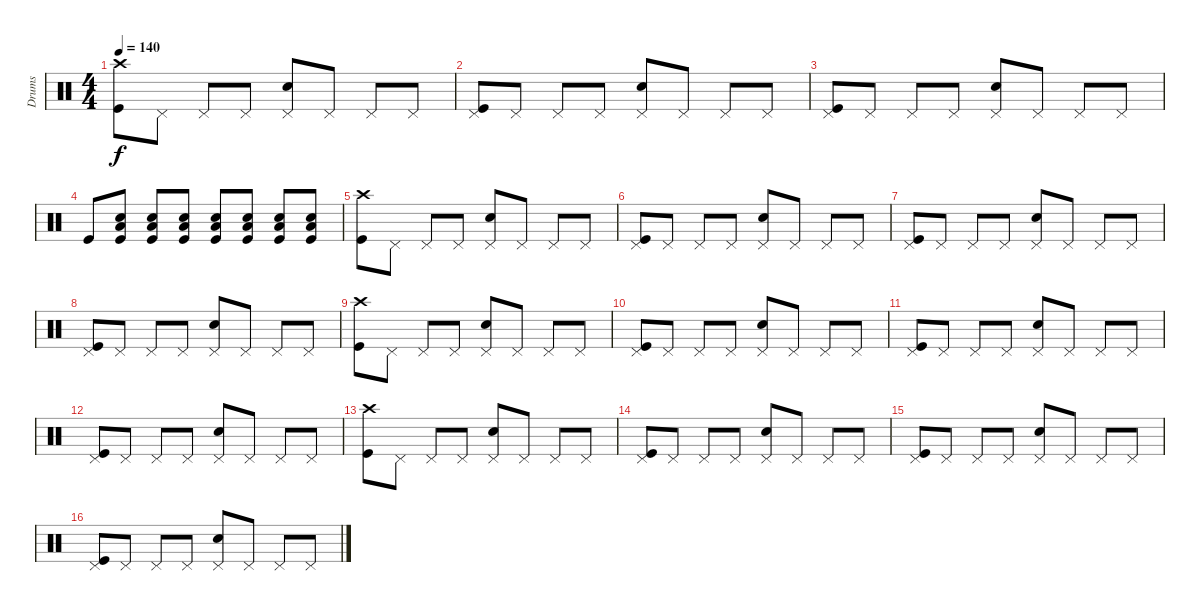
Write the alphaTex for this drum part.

\track ("Drums" "Drums") {instrument percussion}
\staff {score}
\articulation defaults
\ts (4 4)
\tempo 140
\clef neutral
\ks c
("Crash high (hit)" "Kick (hit)").8{dy f} "Pedal Hi-Hat (hit)".8 "Pedal Hi-Hat (hit)".8 "Pedal Hi-Hat (hit)".8 ("Pedal Hi-Hat (hit)" "Snare (hit) 2").8 "Pedal Hi-Hat (hit)".8 "Pedal Hi-Hat (hit)".8 "Pedal Hi-Hat (hit)".8 |
("Pedal Hi-Hat (hit)" "Kick (hit)").8 "Pedal Hi-Hat (hit)".8 "Pedal Hi-Hat (hit)".8 "Pedal Hi-Hat (hit)".8 ("Pedal Hi-Hat (hit)" "Snare (hit) 2").8 "Pedal Hi-Hat (hit)".8 "Pedal Hi-Hat (hit)".8 "Pedal Hi-Hat (hit)".8 |
("Pedal Hi-Hat (hit)" "Kick (hit)").8 "Pedal Hi-Hat (hit)".8 "Pedal Hi-Hat (hit)".8 "Pedal Hi-Hat (hit)".8 ("Pedal Hi-Hat (hit)" "Snare (hit) 2").8 "Pedal Hi-Hat (hit)".8 "Pedal Hi-Hat (hit)".8 "Pedal Hi-Hat (hit)".8 |
"Kick (hit)".8 ("Snare (hit) 2" "Low Tom (hit)" "Kick (hit)").8 ("Snare (hit) 2" "Low Tom (hit)" "Kick (hit)").8 ("Snare (hit) 2" "Low Tom (hit)" "Kick (hit)").8 ("Snare (hit) 2" "Low Tom (hit)" "Kick (hit)").8 ("Snare (hit) 2" "Low Tom (hit)" "Kick (hit)").8 ("Snare (hit) 2" "Low Tom (hit)" "Kick (hit)").8 ("Snare (hit) 2" "Low Tom (hit)" "Kick (hit)").8 |
("Crash high (hit)" "Kick (hit)").8 "Pedal Hi-Hat (hit)".8 "Pedal Hi-Hat (hit)".8 "Pedal Hi-Hat (hit)".8 ("Pedal Hi-Hat (hit)" "Snare (hit) 2").8 "Pedal Hi-Hat (hit)".8 "Pedal Hi-Hat (hit)".8 "Pedal Hi-Hat (hit)".8 |
("Pedal Hi-Hat (hit)" "Kick (hit)").8 "Pedal Hi-Hat (hit)".8 "Pedal Hi-Hat (hit)".8 "Pedal Hi-Hat (hit)".8 ("Pedal Hi-Hat (hit)" "Snare (hit) 2").8 "Pedal Hi-Hat (hit)".8 "Pedal Hi-Hat (hit)".8 "Pedal Hi-Hat (hit)".8 |
("Pedal Hi-Hat (hit)" "Kick (hit)").8 "Pedal Hi-Hat (hit)".8 "Pedal Hi-Hat (hit)".8 "Pedal Hi-Hat (hit)".8 ("Pedal Hi-Hat (hit)" "Snare (hit) 2").8 "Pedal Hi-Hat (hit)".8 "Pedal Hi-Hat (hit)".8 "Pedal Hi-Hat (hit)".8 |
("Pedal Hi-Hat (hit)" "Kick (hit)").8 "Pedal Hi-Hat (hit)".8 "Pedal Hi-Hat (hit)".8 "Pedal Hi-Hat (hit)".8 ("Pedal Hi-Hat (hit)" "Snare (hit) 2").8 "Pedal Hi-Hat (hit)".8 "Pedal Hi-Hat (hit)".8 "Pedal Hi-Hat (hit)".8 |
("Crash high (hit)" "Kick (hit)").8 "Pedal Hi-Hat (hit)".8 "Pedal Hi-Hat (hit)".8 "Pedal Hi-Hat (hit)".8 ("Pedal Hi-Hat (hit)" "Snare (hit) 2").8 "Pedal Hi-Hat (hit)".8 "Pedal Hi-Hat (hit)".8 "Pedal Hi-Hat (hit)".8 |
("Pedal Hi-Hat (hit)" "Kick (hit)").8 "Pedal Hi-Hat (hit)".8 "Pedal Hi-Hat (hit)".8 "Pedal Hi-Hat (hit)".8 ("Pedal Hi-Hat (hit)" "Snare (hit) 2").8 "Pedal Hi-Hat (hit)".8 "Pedal Hi-Hat (hit)".8 "Pedal Hi-Hat (hit)".8 |
("Pedal Hi-Hat (hit)" "Kick (hit)").8 "Pedal Hi-Hat (hit)".8 "Pedal Hi-Hat (hit)".8 "Pedal Hi-Hat (hit)".8 ("Pedal Hi-Hat (hit)" "Snare (hit) 2").8 "Pedal Hi-Hat (hit)".8 "Pedal Hi-Hat (hit)".8 "Pedal Hi-Hat (hit)".8 |
("Pedal Hi-Hat (hit)" "Kick (hit)").8 "Pedal Hi-Hat (hit)".8 "Pedal Hi-Hat (hit)".8 "Pedal Hi-Hat (hit)".8 ("Pedal Hi-Hat (hit)" "Snare (hit) 2").8 "Pedal Hi-Hat (hit)".8 "Pedal Hi-Hat (hit)".8 "Pedal Hi-Hat (hit)".8 |
("Crash high (hit)" "Kick (hit)").8 "Pedal Hi-Hat (hit)".8 "Pedal Hi-Hat (hit)".8 "Pedal Hi-Hat (hit)".8 ("Pedal Hi-Hat (hit)" "Snare (hit) 2").8 "Pedal Hi-Hat (hit)".8 "Pedal Hi-Hat (hit)".8 "Pedal Hi-Hat (hit)".8 |
("Pedal Hi-Hat (hit)" "Kick (hit)").8 "Pedal Hi-Hat (hit)".8 "Pedal Hi-Hat (hit)".8 "Pedal Hi-Hat (hit)".8 ("Pedal Hi-Hat (hit)" "Snare (hit) 2").8 "Pedal Hi-Hat (hit)".8 "Pedal Hi-Hat (hit)".8 "Pedal Hi-Hat (hit)".8 |
("Pedal Hi-Hat (hit)" "Kick (hit)").8 "Pedal Hi-Hat (hit)".8 "Pedal Hi-Hat (hit)".8 "Pedal Hi-Hat (hit)".8 ("Pedal Hi-Hat (hit)" "Snare (hit) 2").8 "Pedal Hi-Hat (hit)".8 "Pedal Hi-Hat (hit)".8 "Pedal Hi-Hat (hit)".8 |
("Pedal Hi-Hat (hit)" "Kick (hit)").8 "Pedal Hi-Hat (hit)".8 "Pedal Hi-Hat (hit)".8 "Pedal Hi-Hat (hit)".8 ("Pedal Hi-Hat (hit)" "Snare (hit) 2").8 "Pedal Hi-Hat (hit)".8 "Pedal Hi-Hat (hit)".8 "Pedal Hi-Hat (hit)".8
